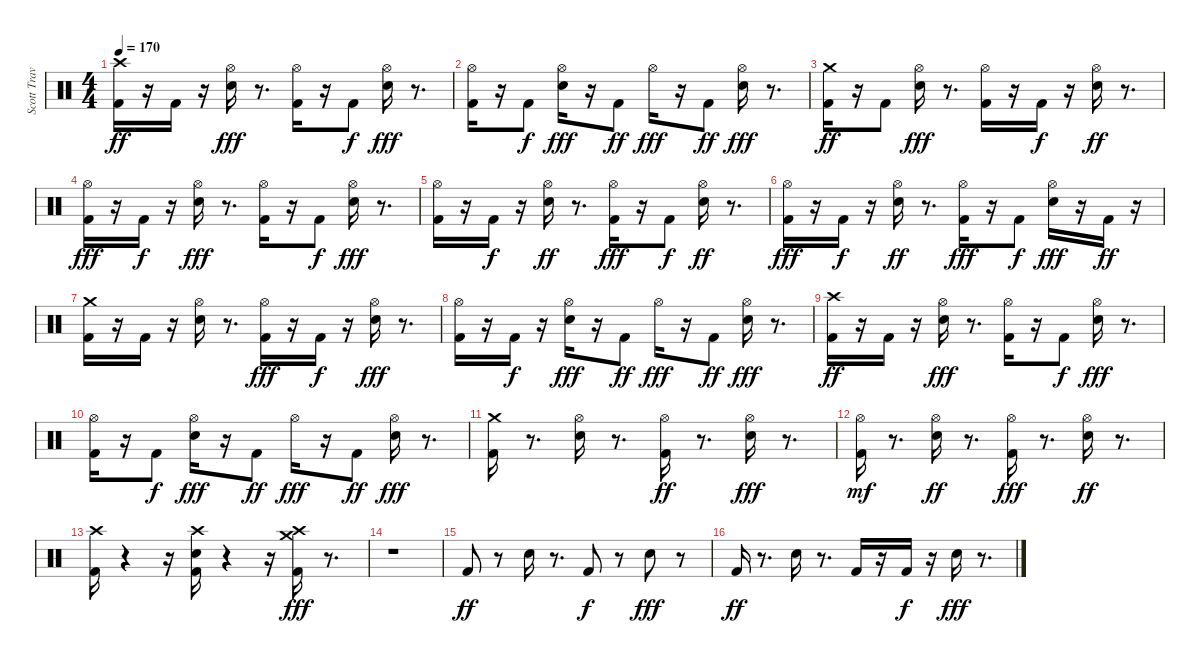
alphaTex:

\track ("Scott Travis" "Scott Trav") {instrument percussion}
\staff {score}
\articulation defaults
\ts (4 4)
\tempo 170
\clef neutral
\ks c
("Crash high (hit)" "Kick (hit) 2").16{dy ff} r.16 "Kick (hit) 2".16 r.16 ("Hi-Hat (open)" "Snare (hit) 2").16{dy fff} r.8{d} ("Kick (hit) 2" "Hi-Hat (open)").16 r.16 "Kick (hit) 2".8{dy f} ("Snare (hit) 2" "Hi-Hat (open)").16{dy fff} r.8{d} |
("Kick (hit) 2" "Hi-Hat (open)").16 r.16 "Kick (hit) 2".8{dy f} ("Snare (hit) 2" "Hi-Hat (open)").16{dy fff} r.16 "Kick (hit) 2".8{dy ff} "Hi-Hat (open)".16{dy fff} r.16 "Kick (hit) 2".8{dy ff} ("Snare (hit) 2" "Hi-Hat (open)").16{dy fff} r.8{d} |
("Kick (hit) 2" "Crash medium (hit)").16{dy ff} r.16 "Kick (hit) 2".8 ("Hi-Hat (open)" "Snare (hit) 2").16{dy fff} r.8{d} ("Kick (hit) 2" "Hi-Hat (open)").16 r.16 "Kick (hit) 2".16{dy f} r.16 ("Hi-Hat (open)" "Snare (hit) 2").16{dy ff} r.8{d} |
("Hi-Hat (open)" "Kick (hit) 2").16{dy fff} r.16 "Kick (hit) 2".16{dy f} r.16 ("Snare (hit) 2" "Hi-Hat (open)").16{dy fff} r.8{d} ("Kick (hit) 2" "Hi-Hat (open)").16 r.16 "Kick (hit) 2".8{dy f} ("Snare (hit) 2" "Hi-Hat (open)").16{dy fff} r.8{d} |
("Kick (hit) 2" "Hi-Hat (open)").16 r.16 "Kick (hit) 2".16{dy f} r.16 ("Hi-Hat (open)" "Snare (hit) 2").16{dy ff} r.8{d} ("Kick (hit) 2" "Hi-Hat (open)").16{dy fff} r.16 "Kick (hit) 2".8{dy f} ("Hi-Hat (open)" "Snare (hit) 2").16{dy ff} r.8{d} |
("Kick (hit) 2" "Hi-Hat (open)").16{dy fff} r.16 "Kick (hit) 2".16{dy f} r.16 ("Hi-Hat (open)" "Snare (hit) 2").16{dy ff} r.8{d} ("Kick (hit) 2" "Hi-Hat (open)").16{dy fff} r.16 "Kick (hit) 2".8{dy f} ("Snare (hit) 2" "Hi-Hat (open)").16{dy fff} r.16 "Kick (hit) 2".16{dy ff} r.16 |
("Crash medium (hit)" "Kick (hit) 2").16 r.16 "Kick (hit) 2".16 r.16 ("Snare (hit) 2" "Hi-Hat (open)").16 r.8{d} ("Kick (hit) 2" "Hi-Hat (open)").16{dy fff} r.16 "Kick (hit) 2".16{dy f} r.16 ("Snare (hit) 2" "Hi-Hat (open)").16{dy fff} r.8{d} |
("Kick (hit) 2" "Hi-Hat (open)").16 r.16 "Kick (hit) 2".16{dy f} r.16 ("Snare (hit) 2" "Hi-Hat (open)").16{dy fff} r.16 "Kick (hit) 2".8{dy ff} "Hi-Hat (open)".16{dy fff} r.16 "Kick (hit) 2".8{dy ff} ("Snare (hit) 2" "Hi-Hat (open)").16{dy fff} r.8{d} |
("Crash high (hit)" "Kick (hit) 2").16{dy ff} r.16 "Kick (hit) 2".16 r.16 ("Hi-Hat (open)" "Snare (hit) 2").16{dy fff} r.8{d} ("Kick (hit) 2" "Hi-Hat (open)").16 r.16 "Kick (hit) 2".8{dy f} ("Snare (hit) 2" "Hi-Hat (open)").16{dy fff} r.8{d} |
("Kick (hit) 2" "Hi-Hat (open)").16 r.16 "Kick (hit) 2".8{dy f} ("Snare (hit) 2" "Hi-Hat (open)").16{dy fff} r.16 "Kick (hit) 2".8{dy ff} "Hi-Hat (open)".16{dy fff} r.16 "Kick (hit) 2".8{dy ff} ("Snare (hit) 2" "Hi-Hat (open)").16{dy fff} r.8{d} |
("Crash medium (hit)" "Kick (hit) 2").16 r.8{d} ("Snare (hit) 2" "Hi-Hat (open)").16 r.8{d} ("Hi-Hat (open)" "Kick (hit) 2").16{dy ff} r.8{d} ("Hi-Hat (open)" "Snare (hit) 2").16{dy fff} r.8{d} |
("Hi-Hat (open)" "Kick (hit) 2").16{dy mf} r.8{d} ("Hi-Hat (open)" "Snare (hit) 2").16{dy ff} r.8{d} ("Kick (hit) 2" "Hi-Hat (open)").16{dy fff} r.8{d} ("Hi-Hat (open)" "Snare (hit) 2").16{dy ff} r.8{d} |
("Crash high (hit)" "Kick (hit) 2").16 r.4 r.16 ("Crash high (hit)" "Kick (hit) 2" "Snare (hit) 2").16 r.4 r.16 ("Crash medium (hit)" "Kick (hit) 2" "Crash high (hit)").16{dy fff} r.8{d} |
r.1 |
"Kick (hit) 2".8{dy ff} r.8 "Snare (hit) 2".16 r.8{d} "Kick (hit) 2".8{dy f} r.8 "Snare (hit) 2".8{dy fff} r.8 |
"Kick (hit) 2".16{dy ff} r.8{d} "Snare (hit) 2".16 r.8{d} "Kick (hit) 2".16 r.16 "Kick (hit) 2".16{dy f} r.16 "Snare (hit) 2".16{dy fff} r.8{d}
